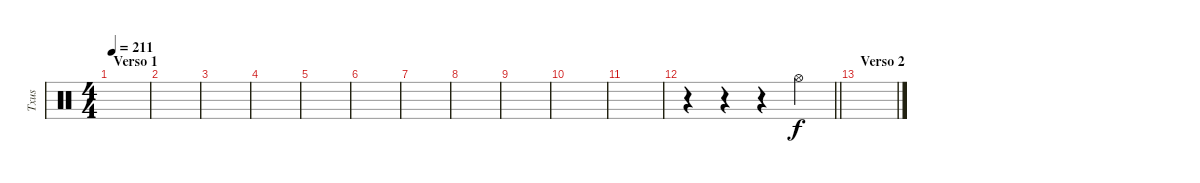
\track ("Txus" "Txus") {instrument percussion}
\staff {score}
\articulation defaults
\ts (4 4)
\section ("" "Verso 1")
\tempo 211
\clef neutral
\ks c
|
|
|
|
|
|
|
|
|
|
|
\barLineRight lightlight
r.4 r.4 r.4 "Hi-Hat (open)".4 |
\section ("" "Verso 2")
